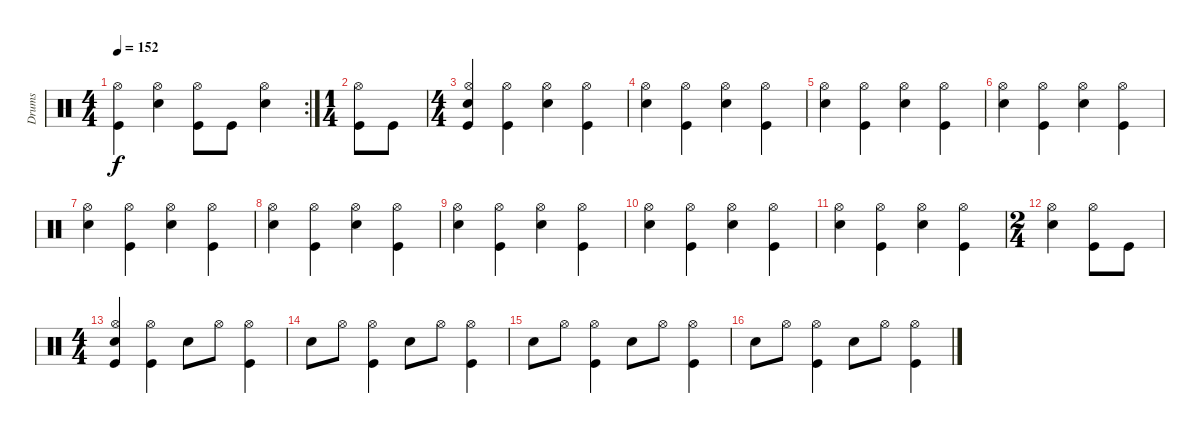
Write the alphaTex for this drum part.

\track ("Drums" "Drums") {instrument percussion}
\staff {score}
\articulation defaults
\rc 2
\ts (4 4)
\tempo 152
\clef neutral
\ks c
("Kick (hit)" "Hi-Hat (open)").4{dy f} ("Electric Snare (hit)" "Hi-Hat (open)").4 ("Kick (hit)" "Hi-Hat (open)").8 "Kick (hit)".8 ("Electric Snare (hit)" "Hi-Hat (open)").4 |
\ts (1 4)
("Kick (hit)" "Hi-Hat (open)").8 "Kick (hit)".8 |
\ts (4 4)
("Kick (hit)" "Electric Snare (hit)" "Hi-Hat (open)").4 ("Kick (hit)" "Hi-Hat (open)").4 ("Electric Snare (hit)" "Hi-Hat (open)").4 ("Kick (hit)" "Hi-Hat (open)").4 |
("Electric Snare (hit)" "Hi-Hat (open)").4 ("Kick (hit)" "Hi-Hat (open)").4 ("Electric Snare (hit)" "Hi-Hat (open)").4 ("Kick (hit)" "Hi-Hat (open)").4 |
("Electric Snare (hit)" "Hi-Hat (open)").4 ("Kick (hit)" "Hi-Hat (open)").4 ("Electric Snare (hit)" "Hi-Hat (open)").4 ("Kick (hit)" "Hi-Hat (open)").4 |
("Electric Snare (hit)" "Hi-Hat (open)").4 ("Kick (hit)" "Hi-Hat (open)").4 ("Electric Snare (hit)" "Hi-Hat (open)").4 ("Kick (hit)" "Hi-Hat (open)").4 |
("Electric Snare (hit)" "Hi-Hat (open)").4 ("Kick (hit)" "Hi-Hat (open)").4 ("Electric Snare (hit)" "Hi-Hat (open)").4 ("Kick (hit)" "Hi-Hat (open)").4 |
("Electric Snare (hit)" "Hi-Hat (open)").4 ("Kick (hit)" "Hi-Hat (open)").4 ("Electric Snare (hit)" "Hi-Hat (open)").4 ("Kick (hit)" "Hi-Hat (open)").4 |
("Electric Snare (hit)" "Hi-Hat (open)").4 ("Kick (hit)" "Hi-Hat (open)").4 ("Electric Snare (hit)" "Hi-Hat (open)").4 ("Kick (hit)" "Hi-Hat (open)").4 |
("Electric Snare (hit)" "Hi-Hat (open)").4 ("Kick (hit)" "Hi-Hat (open)").4 ("Electric Snare (hit)" "Hi-Hat (open)").4 ("Kick (hit)" "Hi-Hat (open)").4 |
("Electric Snare (hit)" "Hi-Hat (open)").4 ("Kick (hit)" "Hi-Hat (open)").4 ("Electric Snare (hit)" "Hi-Hat (open)").4 ("Kick (hit)" "Hi-Hat (open)").4 |
\ts (2 4)
("Electric Snare (hit)" "Hi-Hat (open)").4 ("Kick (hit)" "Hi-Hat (open)").8 "Kick (hit)".8 |
\ts (4 4)
("Kick (hit)" "Electric Snare (hit)" "Hi-Hat (open)").4 ("Kick (hit)" "Hi-Hat (open)").4 "Electric Snare (hit)".8 "Hi-Hat (open)".8 ("Kick (hit)" "Hi-Hat (open)").4 |
"Electric Snare (hit)".8 "Hi-Hat (open)".8 ("Kick (hit)" "Hi-Hat (open)").4 "Electric Snare (hit)".8 "Hi-Hat (open)".8 ("Kick (hit)" "Hi-Hat (open)").4 |
"Electric Snare (hit)".8 "Hi-Hat (open)".8 ("Kick (hit)" "Hi-Hat (open)").4 "Electric Snare (hit)".8 "Hi-Hat (open)".8 ("Kick (hit)" "Hi-Hat (open)").4 |
"Electric Snare (hit)".8 "Hi-Hat (open)".8 ("Kick (hit)" "Hi-Hat (open)").4 "Electric Snare (hit)".8 "Hi-Hat (open)".8 ("Kick (hit)" "Hi-Hat (open)").4
